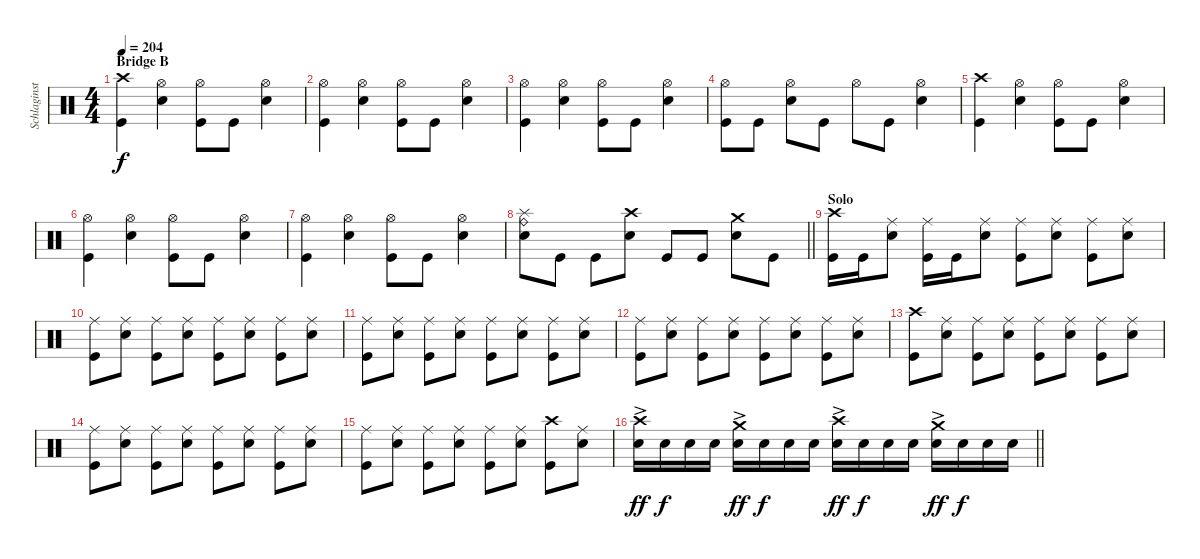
\track ("Schlaginstrumente - Auswahl" "Schlaginst") {instrument percussion}
\staff {score}
\articulation defaults
\ts (4 4)
\section ("" "Bridge B")
\tempo 204
\clef neutral
\ks c
("Kick (hit)" "Crash high (hit)").4{dy f} ("Snare (hit) 2" "Hi-Hat (open)").4 ("Kick (hit)" "Hi-Hat (open)").8 "Kick (hit)".8 ("Snare (hit) 2" "Hi-Hat (open)").4 |
("Kick (hit)" "Hi-Hat (open)").4 ("Snare (hit) 2" "Hi-Hat (open)").4 ("Kick (hit)" "Hi-Hat (open)").8 "Kick (hit)".8 ("Snare (hit) 2" "Hi-Hat (open)").4 |
("Kick (hit)" "Hi-Hat (open)").4 ("Snare (hit) 2" "Hi-Hat (open)").4 ("Kick (hit)" "Hi-Hat (open)").8 "Kick (hit)".8 ("Snare (hit) 2" "Hi-Hat (open)").4 |
("Hi-Hat (open)" "Kick (hit)").8 "Kick (hit)".8 ("Snare (hit) 2" "Hi-Hat (open)").8 "Kick (hit)".8 "Hi-Hat (open)".8 "Kick (hit)".8 ("Snare (hit) 2" "Hi-Hat (open)").4 |
("Kick (hit)" "Crash high (hit)").4 ("Snare (hit) 2" "Hi-Hat (open)").4 ("Kick (hit)" "Hi-Hat (open)").8 "Kick (hit)".8 ("Snare (hit) 2" "Hi-Hat (open)").4 |
("Kick (hit)" "Hi-Hat (open)").4 ("Snare (hit) 2" "Hi-Hat (open)").4 ("Kick (hit)" "Hi-Hat (open)").8 "Kick (hit)".8 ("Snare (hit) 2" "Hi-Hat (open)").4 |
("Kick (hit)" "Hi-Hat (open)").4 ("Snare (hit) 2" "Hi-Hat (open)").4 ("Kick (hit)" "Hi-Hat (open)").8 "Kick (hit)".8 ("Snare (hit) 2" "Hi-Hat (open)").4 |
\barLineRight lightlight
("Ride (bell)" "Splash (hit)" "Snare (hit) 2").8 "Kick (hit)".8 "Kick (hit)".8 ("Snare (hit) 2" "Crash high (hit)").8 "Kick (hit)".8 "Kick (hit)".8 ("Snare (hit) 2" "Crash medium (hit)").8 "Kick (hit)".8 |
\section ("" "Solo")
("Crash high (hit)" "Kick (hit)").16 "Kick (hit)".16 ("Snare (hit) 2" "Ride (middle)").8 ("Kick (hit)" "Ride (middle)").16 "Kick (hit)".16 ("Ride (middle)" "Snare (hit) 2").8 ("Kick (hit)" "Ride (middle)").8 ("Snare (hit) 2" "Ride (middle)").8 ("Kick (hit)" "Ride (middle)").8 ("Snare (hit) 2" "Ride (middle)").8 |
("Kick (hit)" "Ride (middle)").8 ("Snare (hit) 2" "Ride (middle)").8 ("Kick (hit)" "Ride (middle)").8 ("Snare (hit) 2" "Ride (middle)").8 ("Kick (hit)" "Ride (middle)").8 ("Snare (hit) 2" "Ride (middle)").8 ("Kick (hit)" "Ride (middle)").8 ("Snare (hit) 2" "Ride (middle)").8 |
("Kick (hit)" "Ride (middle)").8 ("Snare (hit) 2" "Ride (middle)").8 ("Kick (hit)" "Ride (middle)").8 ("Snare (hit) 2" "Ride (middle)").8 ("Kick (hit)" "Ride (middle)").8 ("Snare (hit) 2" "Ride (middle)").8 ("Kick (hit)" "Ride (middle)").8 ("Snare (hit) 2" "Ride (middle)").8 |
("Kick (hit)" "Ride (middle)").8 ("Snare (hit) 2" "Ride (middle)").8 ("Kick (hit)" "Ride (middle)").8 ("Snare (hit) 2" "Ride (middle)").8 ("Kick (hit)" "Ride (middle)").8 ("Snare (hit) 2" "Ride (middle)").8 ("Kick (hit)" "Ride (middle)").8 ("Snare (hit) 2" "Ride (middle)").8 |
("Kick (hit)" "Crash high (hit)").8 ("Snare (hit) 2" "Ride (middle)").8 ("Kick (hit)" "Ride (middle)").8 ("Snare (hit) 2" "Ride (middle)").8 ("Kick (hit)" "Ride (middle)").8 ("Snare (hit) 2" "Ride (middle)").8 ("Kick (hit)" "Ride (middle)").8 ("Snare (hit) 2" "Ride (middle)").8 |
("Kick (hit)" "Ride (middle)").8 ("Snare (hit) 2" "Ride (middle)").8 ("Kick (hit)" "Ride (middle)").8 ("Snare (hit) 2" "Ride (middle)").8 ("Kick (hit)" "Ride (middle)").8 ("Snare (hit) 2" "Ride (middle)").8 ("Kick (hit)" "Ride (middle)").8 ("Snare (hit) 2" "Ride (middle)").8 |
("Kick (hit)" "Ride (middle)").8 ("Snare (hit) 2" "Ride (middle)").8 ("Kick (hit)" "Ride (middle)").8 ("Snare (hit) 2" "Ride (middle)").8 ("Kick (hit)" "Ride (middle)").8 ("Snare (hit) 2" "Ride (middle)").8 ("Kick (hit)" "Crash high (hit)").8 ("Snare (hit) 2" "Ride (middle)").8 |
\barLineRight lightlight
("Snare (hit) 2"{ac} "Crash high (hit)").16{dy ff} "Snare (hit) 2".16{dy f} "Snare (hit) 2".16 "Snare (hit) 2".16 ("Snare (hit) 2"{ac} "Crash medium (hit)").16{dy ff} "Snare (hit) 2".16{dy f} "Snare (hit) 2".16 "Snare (hit) 2".16 ("Snare (hit) 2"{ac} "Crash high (hit)").16{dy ff} "Snare (hit) 2".16{dy f} "Snare (hit) 2".16 "Snare (hit) 2".16 ("Snare (hit) 2"{ac} "Crash medium (hit)").16{dy ff} "Snare (hit) 2".16{dy f} "Snare (hit) 2".16 "Snare (hit) 2".16
